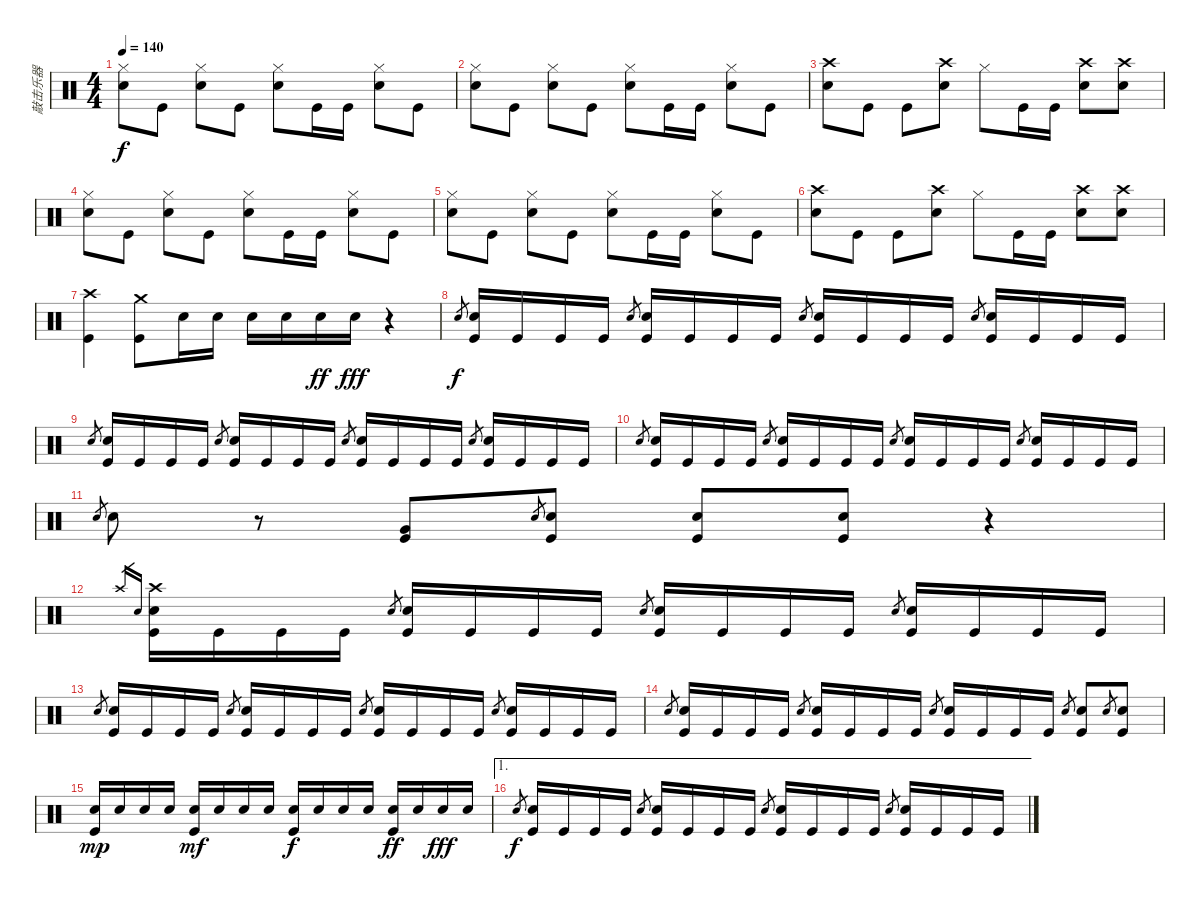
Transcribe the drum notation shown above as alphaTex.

\track ("敲击乐器" "敲击乐器") {instrument percussion}
\staff {score}
\articulation defaults
\ts (4 4)
\tempo 140
\clef neutral
\ks c
("Hi-Hat (closed)" "Electric Snare (hit)").8{dy f} "Kick (hit)".8 ("Hi-Hat (closed)" "Electric Snare (hit)").8 "Kick (hit)".8 ("Hi-Hat (closed)" "Electric Snare (hit)").8 "Kick (hit)".16 "Kick (hit)".16 ("Hi-Hat (closed)" "Electric Snare (hit)").8 "Kick (hit)".8 |
("Hi-Hat (closed)" "Electric Snare (hit)").8 "Kick (hit)".8 ("Hi-Hat (closed)" "Electric Snare (hit)").8 "Kick (hit)".8 ("Hi-Hat (closed)" "Electric Snare (hit)").8 "Kick (hit)".16 "Kick (hit)".16 ("Hi-Hat (closed)" "Electric Snare (hit)").8 "Kick (hit)".8 |
("Crash high (hit)" "Electric Snare (hit)").8 "Kick (hit)".8 "Kick (hit)".8 ("Crash high (hit)" "Electric Snare (hit)").8 "Hi-Hat (closed)".8 "Kick (hit)".16 "Kick (hit)".16 ("Crash high (hit)" "Electric Snare (hit)").8 ("Crash high (hit)" "Electric Snare (hit)").8 |
("Hi-Hat (closed)" "Electric Snare (hit)").8 "Kick (hit)".8 ("Hi-Hat (closed)" "Electric Snare (hit)").8 "Kick (hit)".8 ("Hi-Hat (closed)" "Electric Snare (hit)").8 "Kick (hit)".16 "Kick (hit)".16 ("Hi-Hat (closed)" "Electric Snare (hit)").8 "Kick (hit)".8 |
("Hi-Hat (closed)" "Electric Snare (hit)").8 "Kick (hit)".8 ("Hi-Hat (closed)" "Electric Snare (hit)").8 "Kick (hit)".8 ("Hi-Hat (closed)" "Electric Snare (hit)").8 "Kick (hit)".16 "Kick (hit)".16 ("Hi-Hat (closed)" "Electric Snare (hit)").8 "Kick (hit)".8 |
("Crash high (hit)" "Electric Snare (hit)").8 "Kick (hit)".8 "Kick (hit)".8 ("Crash high (hit)" "Electric Snare (hit)").8 "Hi-Hat (closed)".8 "Kick (hit)".16 "Kick (hit)".16 ("Crash high (hit)" "Electric Snare (hit)").8 ("Crash high (hit)" "Electric Snare (hit)").8 |
("Crash high (hit)" "Kick (hit)").4 ("Crash medium (hit)" "Kick (hit)").8 "Electric Snare (hit)".16 "Electric Snare (hit)".16 "Snare (hit) 2".16 "Snare (hit) 2".16 "Electric Snare (hit)".16{dy ff} "Electric Snare (hit)".16{dy fff} r.4 |
"Electric Snare (hit)".8{gr dy f} ("Electric Snare (hit)" "Kick (hit)").16 "Kick (hit)".16 "Kick (hit)".16 "Kick (hit)".16 "Electric Snare (hit)".8{gr} ("Electric Snare (hit)" "Kick (hit)").16 "Kick (hit)".16 "Kick (hit)".16 "Kick (hit)".16 "Electric Snare (hit)".8{gr} ("Electric Snare (hit)" "Kick (hit)").16 "Kick (hit)".16 "Kick (hit)".16 "Kick (hit)".16 "Electric Snare (hit)".8{gr} ("Electric Snare (hit)" "Kick (hit)").16 "Kick (hit)".16 "Kick (hit)".16 "Kick (hit)".16 |
"Electric Snare (hit)".8{gr} ("Electric Snare (hit)" "Kick (hit)").16 "Kick (hit)".16 "Kick (hit)".16 "Kick (hit)".16 "Electric Snare (hit)".8{gr} ("Electric Snare (hit)" "Kick (hit)").16 "Kick (hit)".16 "Kick (hit)".16 "Kick (hit)".16 "Electric Snare (hit)".8{gr} ("Electric Snare (hit)" "Kick (hit)").16 "Kick (hit)".16 "Kick (hit)".16 "Kick (hit)".16 "Electric Snare (hit)".8{gr} ("Electric Snare (hit)" "Kick (hit)").16 "Kick (hit)".16 "Kick (hit)".16 "Kick (hit)".16 |
"Electric Snare (hit)".8{gr} ("Electric Snare (hit)" "Kick (hit)").16 "Kick (hit)".16 "Kick (hit)".16 "Kick (hit)".16 "Electric Snare (hit)".8{gr} ("Electric Snare (hit)" "Kick (hit)").16 "Kick (hit)".16 "Kick (hit)".16 "Kick (hit)".16 "Electric Snare (hit)".8{gr} ("Electric Snare (hit)" "Kick (hit)").16 "Kick (hit)".16 "Kick (hit)".16 "Kick (hit)".16 "Electric Snare (hit)".8{gr} ("Electric Snare (hit)" "Kick (hit)").16 "Kick (hit)".16 "Kick (hit)".16 "Kick (hit)".16 |
"Electric Snare (hit)".8{gr} "Electric Snare (hit)".8 r.8 ("Very Low Tom (hit)" "Kick (hit)").8 "Electric Snare (hit)".8{gr} ("Electric Snare (hit)" "Kick (hit)").8 ("Electric Snare (hit)" "Kick (hit)").8 ("Electric Snare (hit)" "Kick (hit)").8 r.4 |
"Crash high (hit)".16{gr} "Electric Snare (hit)".16{gr} ("Crash high (hit)" "Electric Snare (hit)" "Kick (hit)").16 "Kick (hit)".16 "Kick (hit)".16 "Kick (hit)".16 "Electric Snare (hit)".8{gr} ("Electric Snare (hit)" "Kick (hit)").16 "Kick (hit)".16 "Kick (hit)".16 "Kick (hit)".16 "Electric Snare (hit)".8{gr} ("Electric Snare (hit)" "Kick (hit)").16 "Kick (hit)".16 "Kick (hit)".16 "Kick (hit)".16 "Electric Snare (hit)".8{gr} ("Electric Snare (hit)" "Kick (hit)").16 "Kick (hit)".16 "Kick (hit)".16 "Kick (hit)".16 |
"Electric Snare (hit)".8{gr} ("Electric Snare (hit)" "Kick (hit)").16 "Kick (hit)".16 "Kick (hit)".16 "Kick (hit)".16 "Electric Snare (hit)".8{gr} ("Electric Snare (hit)" "Kick (hit)").16 "Kick (hit)".16 "Kick (hit)".16 "Kick (hit)".16 "Electric Snare (hit)".8{gr} ("Electric Snare (hit)" "Kick (hit)").16 "Kick (hit)".16 "Kick (hit)".16 "Kick (hit)".16 "Electric Snare (hit)".8{gr} ("Electric Snare (hit)" "Kick (hit)").16 "Kick (hit)".16 "Kick (hit)".16 "Kick (hit)".16 |
"Electric Snare (hit)".8{gr} ("Electric Snare (hit)" "Kick (hit)").16 "Kick (hit)".16 "Kick (hit)".16 "Kick (hit)".16 "Electric Snare (hit)".8{gr} ("Electric Snare (hit)" "Kick (hit)").16 "Kick (hit)".16 "Kick (hit)".16 "Kick (hit)".16 "Electric Snare (hit)".8{gr} ("Electric Snare (hit)" "Kick (hit)").16 "Kick (hit)".16 "Kick (hit)".16 "Kick (hit)".16 "Electric Snare (hit)".8{gr} ("Electric Snare (hit)" "Kick (hit)").8 "Electric Snare (hit)".8{gr} ("Electric Snare (hit)" "Kick (hit)").8 |
("Electric Snare (hit)" "Kick (hit)").16{dy mp} "Electric Snare (hit)".16 "Electric Snare (hit)".16 "Electric Snare (hit)".16 ("Electric Snare (hit)" "Kick (hit)").16{dy mf} "Electric Snare (hit)".16 "Electric Snare (hit)".16 "Electric Snare (hit)".16 ("Electric Snare (hit)" "Kick (hit)").16{dy f} "Electric Snare (hit)".16 "Electric Snare (hit)".16 "Electric Snare (hit)".16 ("Electric Snare (hit)" "Kick (hit)").16{dy ff} "Electric Snare (hit)".16 "Electric Snare (hit)".16{dy fff} "Electric Snare (hit)".16 |
\ae 1 "Electric Snare (hit)".8{gr dy f}
("Electric Snare (hit)" "Kick (hit)").16 "Kick (hit)".16 "Kick (hit)".16 "Kick (hit)".16 "Electric Snare (hit)".8{gr} ("Electric Snare (hit)" "Kick (hit)").16 "Kick (hit)".16 "Kick (hit)".16 "Kick (hit)".16 "Electric Snare (hit)".8{gr} ("Electric Snare (hit)" "Kick (hit)").16 "Kick (hit)".16 "Kick (hit)".16 "Kick (hit)".16 "Electric Snare (hit)".8{gr} ("Electric Snare (hit)" "Kick (hit)").16 "Kick (hit)".16 "Kick (hit)".16 "Kick (hit)".16
